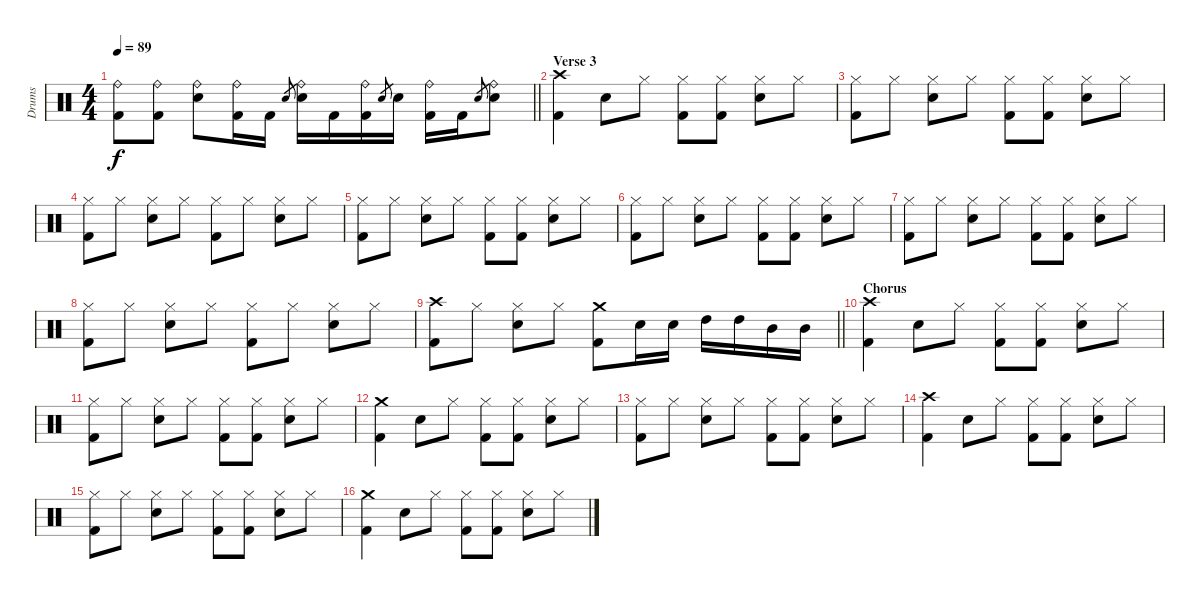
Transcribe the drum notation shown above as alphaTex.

\track ("Drums" "Drums") {instrument percussion}
\staff {score}
\articulation defaults
\ts (4 4)
\tempo 89
\clef neutral
\barLineRight lightlight
\ks c
("Kick (hit) 2" "Ride (bell)").8{dy f} ("Kick (hit) 2" "Ride (bell)").8 ("Snare (hit) 2" "Ride (bell)").8 ("Kick (hit) 2" "Ride (bell)").16 "Kick (hit) 2".16 "Snare (hit) 2".8{gr} ("Snare (hit) 2" "Ride (bell)").16 "Kick (hit) 2".16 ("Kick (hit) 2" "Ride (bell)").16 "Snare (hit) 2".8{gr} "Snare (hit) 2".16 ("Kick (hit) 2" "Ride (bell)").16 "Kick (hit) 2".16 "Snare (hit) 2".8{gr} ("Snare (hit) 2" "Ride (bell)").8 |
\section ("" "Verse 3")
("Kick (hit) 2" "Crash high (hit)").4 "Snare (hit) 2".8 "Hi-Hat (closed)".8 ("Kick (hit) 2" "Hi-Hat (closed)").8 ("Kick (hit) 2" "Hi-Hat (closed)").8 ("Snare (hit) 2" "Hi-Hat (closed)").8 "Hi-Hat (closed)".8 |
("Kick (hit) 2" "Hi-Hat (closed)").8 "Hi-Hat (closed)".8 ("Snare (hit) 2" "Hi-Hat (closed)").8 "Hi-Hat (closed)".8 ("Kick (hit) 2" "Hi-Hat (closed)").8 ("Kick (hit) 2" "Hi-Hat (closed)").8 ("Snare (hit) 2" "Hi-Hat (closed)").8 "Hi-Hat (closed)".8 |
("Kick (hit) 2" "Hi-Hat (closed)").8 "Hi-Hat (closed)".8 ("Snare (hit) 2" "Hi-Hat (closed)").8 "Hi-Hat (closed)".8 ("Kick (hit) 2" "Hi-Hat (closed)").8 "Hi-Hat (closed)".8 ("Snare (hit) 2" "Hi-Hat (closed)").8 "Hi-Hat (closed)".8 |
("Kick (hit) 2" "Hi-Hat (closed)").8 "Hi-Hat (closed)".8 ("Snare (hit) 2" "Hi-Hat (closed)").8 "Hi-Hat (closed)".8 ("Kick (hit) 2" "Hi-Hat (closed)").8 ("Kick (hit) 2" "Hi-Hat (closed)").8 ("Snare (hit) 2" "Hi-Hat (closed)").8 "Hi-Hat (closed)".8 |
("Kick (hit) 2" "Hi-Hat (closed)").8 "Hi-Hat (closed)".8 ("Snare (hit) 2" "Hi-Hat (closed)").8 "Hi-Hat (closed)".8 ("Kick (hit) 2" "Hi-Hat (closed)").8 ("Kick (hit) 2" "Hi-Hat (closed)").8 ("Snare (hit) 2" "Hi-Hat (closed)").8 "Hi-Hat (closed)".8 |
("Kick (hit) 2" "Hi-Hat (closed)").8 "Hi-Hat (closed)".8 ("Snare (hit) 2" "Hi-Hat (closed)").8 "Hi-Hat (closed)".8 ("Kick (hit) 2" "Hi-Hat (closed)").8 ("Kick (hit) 2" "Hi-Hat (closed)").8 ("Snare (hit) 2" "Hi-Hat (closed)").8 "Hi-Hat (closed)".8 |
("Kick (hit) 2" "Hi-Hat (closed)").8 "Hi-Hat (closed)".8 ("Snare (hit) 2" "Hi-Hat (closed)").8 "Hi-Hat (closed)".8 ("Kick (hit) 2" "Hi-Hat (closed)").8 "Hi-Hat (closed)".8 ("Snare (hit) 2" "Hi-Hat (closed)").8 "Hi-Hat (closed)".8 |
\barLineRight lightlight
("Kick (hit) 2" "Crash high (hit)").8 "Hi-Hat (closed)".8 ("Snare (hit) 2" "Hi-Hat (closed)").8 "Hi-Hat (closed)".8 ("Kick (hit) 2" "Crash medium (hit)").8 "Snare (hit) 2".16 "Snare (hit) 2".16 "High Tom (hit)".16 "High Tom (hit)".16 "Mid Tom (hit)".16 "Mid Tom (hit)".16 |
\section ("" "Chorus")
("Kick (hit) 2" "Crash high (hit)").4 "Snare (hit) 2".8 "Hi-Hat (closed)".8 ("Kick (hit) 2" "Hi-Hat (closed)").8 ("Kick (hit) 2" "Hi-Hat (closed)").8 ("Snare (hit) 2" "Hi-Hat (closed)").8 "Hi-Hat (closed)".8 |
("Kick (hit) 2" "Hi-Hat (closed)").8 "Hi-Hat (closed)".8 ("Snare (hit) 2" "Hi-Hat (closed)").8 "Hi-Hat (closed)".8 ("Kick (hit) 2" "Hi-Hat (closed)").8 ("Kick (hit) 2" "Hi-Hat (closed)").8 ("Snare (hit) 2" "Hi-Hat (closed)").8 "Hi-Hat (closed)".8 |
("Kick (hit) 2" "Crash medium (hit)").4 "Snare (hit) 2".8 "Hi-Hat (closed)".8 ("Kick (hit) 2" "Hi-Hat (closed)").8 ("Kick (hit) 2" "Hi-Hat (closed)").8 ("Snare (hit) 2" "Hi-Hat (closed)").8 "Hi-Hat (closed)".8 |
("Kick (hit) 2" "Hi-Hat (closed)").8 "Hi-Hat (closed)".8 ("Snare (hit) 2" "Hi-Hat (closed)").8 "Hi-Hat (closed)".8 ("Kick (hit) 2" "Hi-Hat (closed)").8 ("Kick (hit) 2" "Hi-Hat (closed)").8 ("Snare (hit) 2" "Hi-Hat (closed)").8 "Hi-Hat (closed)".8 |
("Kick (hit) 2" "Crash high (hit)").4 "Snare (hit) 2".8 "Hi-Hat (closed)".8 ("Kick (hit) 2" "Hi-Hat (closed)").8 ("Kick (hit) 2" "Hi-Hat (closed)").8 ("Snare (hit) 2" "Hi-Hat (closed)").8 "Hi-Hat (closed)".8 |
("Kick (hit) 2" "Hi-Hat (closed)").8 "Hi-Hat (closed)".8 ("Snare (hit) 2" "Hi-Hat (closed)").8 "Hi-Hat (closed)".8 ("Kick (hit) 2" "Hi-Hat (closed)").8 ("Kick (hit) 2" "Hi-Hat (closed)").8 ("Snare (hit) 2" "Hi-Hat (closed)").8 "Hi-Hat (closed)".8 |
("Kick (hit) 2" "Crash medium (hit)").4 "Snare (hit) 2".8 "Hi-Hat (closed)".8 ("Kick (hit) 2" "Hi-Hat (closed)").8 ("Kick (hit) 2" "Hi-Hat (closed)").8 ("Snare (hit) 2" "Hi-Hat (closed)").8 "Hi-Hat (closed)".8
